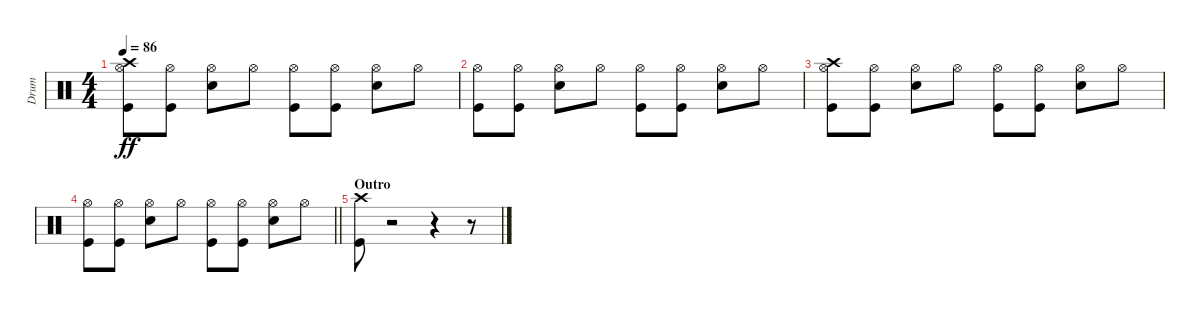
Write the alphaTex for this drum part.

\track ("Drum" "Drum") {instrument percussion}
\staff {score}
\articulation defaults
\ts (4 4)
\tempo 86
\clef neutral
\ks c
("Kick (hit)" "Hi-Hat (open)" "Crash high (hit)").8{dy ff} ("Kick (hit)" "Hi-Hat (open)").8 ("Hi-Hat (open)" "Electric Snare (hit)").8 "Hi-Hat (open)".8 ("Hi-Hat (open)" "Kick (hit)").8 ("Hi-Hat (open)" "Kick (hit)").8 ("Hi-Hat (open)" "Electric Snare (hit)").8 "Hi-Hat (open)".8 |
("Hi-Hat (open)" "Kick (hit)").8 ("Hi-Hat (open)" "Kick (hit)").8 ("Hi-Hat (open)" "Electric Snare (hit)").8 "Hi-Hat (open)".8 ("Hi-Hat (open)" "Kick (hit)").8 ("Hi-Hat (open)" "Kick (hit)").8 ("Hi-Hat (open)" "Electric Snare (hit)").8 "Hi-Hat (open)".8 |
("Crash high (hit)" "Kick (hit)" "Hi-Hat (open)").8 ("Hi-Hat (open)" "Kick (hit)").8 ("Electric Snare (hit)" "Hi-Hat (open)").8 "Hi-Hat (open)".8 ("Hi-Hat (open)" "Kick (hit)").8 ("Hi-Hat (open)" "Kick (hit)").8 ("Hi-Hat (open)" "Electric Snare (hit)").8 "Hi-Hat (open)".8 |
\barLineRight lightlight
("Kick (hit)" "Hi-Hat (open)").8 ("Kick (hit)" "Hi-Hat (open)").8 ("Hi-Hat (open)" "Electric Snare (hit)").8 "Hi-Hat (open)".8 ("Hi-Hat (open)" "Kick (hit)").8 ("Hi-Hat (open)" "Kick (hit)").8 ("Electric Snare (hit)" "Hi-Hat (open)").8 "Hi-Hat (open)".8 |
\section ("" "Outro")
("Crash high (hit)" "Kick (hit)").8 r.2 r.4 r.8
